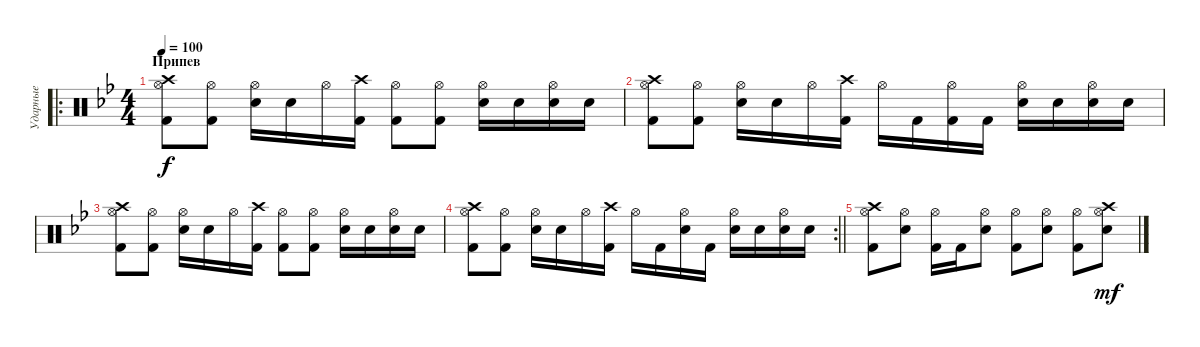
\track ("Ударные" "Ударные") {instrument percussion}
\staff {score}
\articulation defaults
\ro
\ts (4 4)
\section ("" "Припев")
\tempo 100
\clef neutral
\ks gminor
("Crash high (hit)" "Hi-Hat (open)" "Kick (hit) 2").8{dy f} ("Hi-Hat (open)" "Kick (hit) 2").8 ("Hi-Hat (open)" "Electric Snare (hit)").16 "Electric Snare (hit)".16 "Hi-Hat (open)".16 ("Crash high (hit)" "Kick (hit) 2").16 ("Hi-Hat (open)" "Kick (hit) 2").8 ("Hi-Hat (open)" "Kick (hit) 2").8 ("Hi-Hat (open)" "Electric Snare (hit)").16 "Electric Snare (hit)".16 ("Hi-Hat (open)" "Electric Snare (hit)").16 "Electric Snare (hit)".16 |
("Crash high (hit)" "Hi-Hat (open)" "Kick (hit) 2").8 ("Hi-Hat (open)" "Kick (hit) 2").8 ("Hi-Hat (open)" "Electric Snare (hit)").16 "Electric Snare (hit)".16 "Hi-Hat (open)".16 ("Crash high (hit)" "Kick (hit) 2").16 "Hi-Hat (open)".16 "Kick (hit) 2".16 ("Hi-Hat (open)" "Kick (hit) 2").16 "Kick (hit) 2".16 ("Hi-Hat (open)" "Electric Snare (hit)").16 "Electric Snare (hit)".16 ("Hi-Hat (open)" "Electric Snare (hit)").16 "Electric Snare (hit)".16 |
("Crash high (hit)" "Hi-Hat (open)" "Kick (hit) 2").8 ("Hi-Hat (open)" "Kick (hit) 2").8 ("Hi-Hat (open)" "Electric Snare (hit)").16 "Electric Snare (hit)".16 "Hi-Hat (open)".16 ("Crash high (hit)" "Kick (hit) 2").16 ("Hi-Hat (open)" "Kick (hit) 2").8 ("Hi-Hat (open)" "Kick (hit) 2").8 ("Hi-Hat (open)" "Electric Snare (hit)").16 "Electric Snare (hit)".16 ("Hi-Hat (open)" "Electric Snare (hit)").16 "Electric Snare (hit)".16 |
\rc 2
\barLineRight lightlight
("Crash high (hit)" "Hi-Hat (open)" "Kick (hit) 2").8 ("Hi-Hat (open)" "Kick (hit) 2").8 ("Hi-Hat (open)" "Electric Snare (hit)").16 "Electric Snare (hit)".16 "Hi-Hat (open)".16 ("Crash high (hit)" "Kick (hit) 2").16 "Hi-Hat (open)".16 "Kick (hit) 2".16 ("Hi-Hat (open)" "Electric Snare (hit)").16 "Kick (hit) 2".16 ("Hi-Hat (open)" "Electric Snare (hit)").16 "Electric Snare (hit)".16 ("Hi-Hat (open)" "Electric Snare (hit)").16 "Electric Snare (hit)".16 |
("Crash high (hit)" "Hi-Hat (open)" "Kick (hit) 2").8 ("Hi-Hat (open)" "Electric Snare (hit)").8 ("Hi-Hat (open)" "Kick (hit) 2").16 "Kick (hit) 2".16 ("Hi-Hat (open)" "Electric Snare (hit)").8 ("Hi-Hat (open)" "Kick (hit) 2").8 ("Hi-Hat (open)" "Electric Snare (hit)").8 ("Hi-Hat (open)" "Kick (hit) 2").8 ("Crash high (hit)" "Hi-Hat (open)" "Electric Snare (hit)").8{dy mf}
